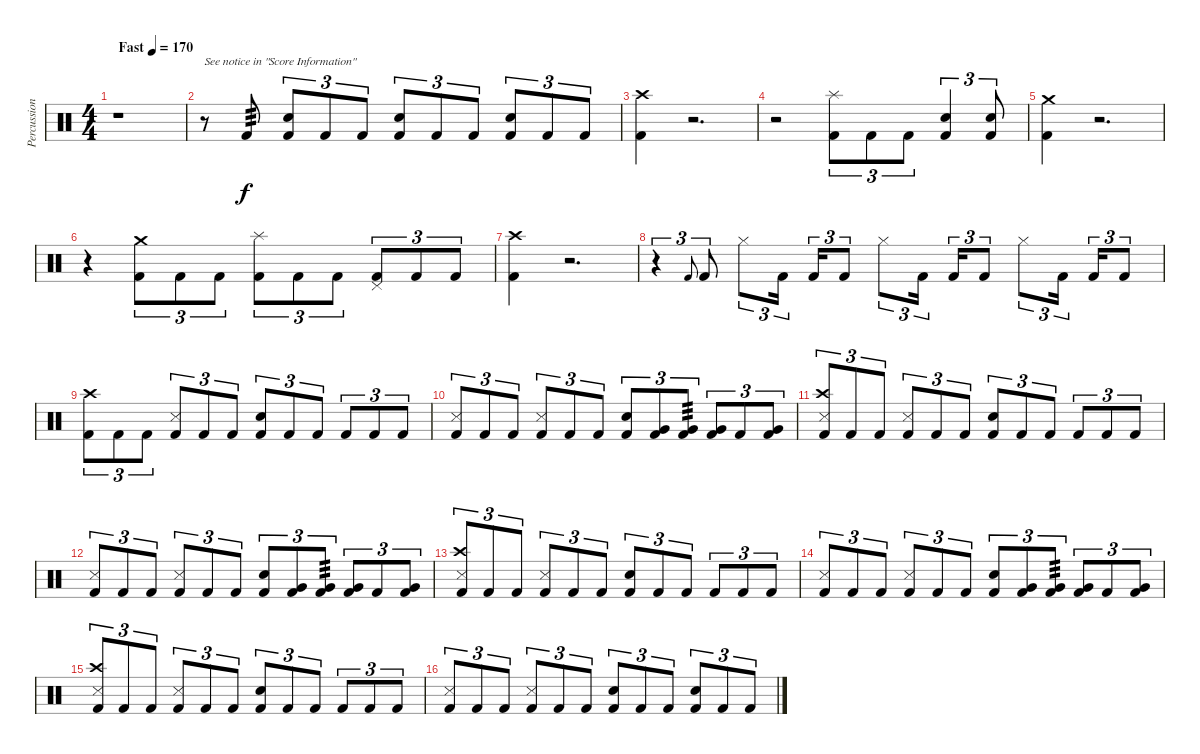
\track ("Percussioni" "Percussion") {instrument percussion}
\staff {score}
\articulation defaults
\ts (4 4)
\tempo (170 "Fast")
\clef neutral
\ks c
r.1{dy f} |
r.8{txt "See notice in \"Score Information\""} "Kick (hit) 2".8{tp 3} ("Snare (hit) 2" "Kick (hit) 2").8{tu (3 2)} "Kick (hit) 2".8{tu (3 2)} "Kick (hit) 2".8{tu (3 2)} ("Snare (hit) 2" "Kick (hit) 2").8{tu (3 2)} "Kick (hit) 2".8{tu (3 2)} "Kick (hit) 2".8{tu (3 2)} ("Snare (hit) 2" "Kick (hit) 2").8{tu (3 2)} "Kick (hit) 2".8{tu (3 2)} "Kick (hit) 2".8{tu (3 2)} |
("Crash high (hit)" "Kick (hit) 2").4 r.2{d} |
r.2 ("Splash (hit)" "Kick (hit) 2").8{tu (3 2)} "Kick (hit) 2".8{tu (3 2)} "Kick (hit) 2".8{tu (3 2)} ("Snare (hit) 2" "Kick (hit) 2").4{tu (3 2)} ("Snare (hit) 2" "Kick (hit) 2").8{tu (3 2)} |
("Crash medium (hit)" "Kick (hit) 2").4 r.2{d} |
r.4 ("Crash medium (hit)" "Kick (hit) 2").8{tu (3 2)} "Kick (hit) 2".8{tu (3 2)} "Kick (hit) 2".8{tu (3 2)} ("Splash (hit)" "Kick (hit) 2").8{tu (3 2)} "Kick (hit) 2".8{tu (3 2)} "Kick (hit) 2".8{tu (3 2)} ("Pedal Hi-Hat (hit)" "Kick (hit) 2").8{tu (3 2)} "Kick (hit) 2".8{tu (3 2)} "Kick (hit) 2".8{tu (3 2)} |
("Crash high (hit)" "Kick (hit) 2").4 r.2{d} |
r.4{tu (3 2)} "Kick (hit) 2".8{gr onbeat} "Kick (hit) 2".8{tu (3 2)} "Hi-Hat (closed)".8{tu (3 2)} "Kick (hit) 2".16{tu (3 2) beam splitsecondary} "Kick (hit) 2".16{tu (3 2)} "Kick (hit) 2".8{tu (3 2)} "Hi-Hat (closed)".8{tu (3 2)} "Kick (hit) 2".16{tu (3 2) beam splitsecondary} "Kick (hit) 2".16{tu (3 2)} "Kick (hit) 2".8{tu (3 2)} "Hi-Hat (closed)".8{tu (3 2)} "Kick (hit) 2".16{tu (3 2) beam splitsecondary} "Kick (hit) 2".16{tu (3 2)} "Kick (hit) 2".8{tu (3 2)} |
("Crash high (hit)" "Kick (hit) 2").8{tu (3 2)} "Kick (hit) 2".8{tu (3 2)} "Kick (hit) 2".8{tu (3 2)} ("Snare (side stick) 3" "Kick (hit) 2").8{tu (3 2)} "Kick (hit) 2".8{tu (3 2)} "Kick (hit) 2".8{tu (3 2)} ("Snare (hit) 2" "Kick (hit) 2").8{tu (3 2)} "Kick (hit) 2".8{tu (3 2)} "Kick (hit) 2".8{tu (3 2)} "Kick (hit) 2".8{tu (3 2)} "Kick (hit) 2".8{tu (3 2)} "Kick (hit) 2".8{tu (3 2)} |
("Snare (side stick) 3" "Kick (hit) 2").8{tu (3 2)} "Kick (hit) 2".8{tu (3 2)} "Kick (hit) 2".8{tu (3 2)} ("Snare (side stick) 3" "Kick (hit) 2").8{tu (3 2)} "Kick (hit) 2".8{tu (3 2)} "Kick (hit) 2".8{tu (3 2)} ("Snare (hit) 2" "Kick (hit) 2").8{tu (3 2)} ("Very Low Tom (hit)" "Kick (hit) 2").8{tu (3 2)} ("Very Low Tom (hit)" "Kick (hit) 2").8{tu (3 2) tp 3} ("Very Low Tom (hit)" "Kick (hit) 2").8{tu (3 2)} "Kick (hit) 2".8{tu (3 2)} ("Very Low Tom (hit)" "Kick (hit) 2").8{tu (3 2)} |
("Crash high (hit)" "Snare (side stick) 3" "Kick (hit) 2").8{tu (3 2)} "Kick (hit) 2".8{tu (3 2)} "Kick (hit) 2".8{tu (3 2)} ("Snare (side stick) 3" "Kick (hit) 2").8{tu (3 2)} "Kick (hit) 2".8{tu (3 2)} "Kick (hit) 2".8{tu (3 2)} ("Snare (hit) 2" "Kick (hit) 2").8{tu (3 2)} "Kick (hit) 2".8{tu (3 2)} "Kick (hit) 2".8{tu (3 2)} "Kick (hit) 2".8{tu (3 2)} "Kick (hit) 2".8{tu (3 2)} "Kick (hit) 2".8{tu (3 2)} |
("Snare (side stick) 3" "Kick (hit) 2").8{tu (3 2)} "Kick (hit) 2".8{tu (3 2)} "Kick (hit) 2".8{tu (3 2)} ("Snare (side stick) 3" "Kick (hit) 2").8{tu (3 2)} "Kick (hit) 2".8{tu (3 2)} "Kick (hit) 2".8{tu (3 2)} ("Snare (hit) 2" "Kick (hit) 2").8{tu (3 2)} ("Very Low Tom (hit)" "Kick (hit) 2").8{tu (3 2)} ("Very Low Tom (hit)" "Kick (hit) 2").8{tu (3 2) tp 3} ("Very Low Tom (hit)" "Kick (hit) 2").8{tu (3 2)} "Kick (hit) 2".8{tu (3 2)} ("Very Low Tom (hit)" "Kick (hit) 2").8{tu (3 2)} |
("Crash high (hit)" "Snare (side stick) 3" "Kick (hit) 2").8{tu (3 2)} "Kick (hit) 2".8{tu (3 2)} "Kick (hit) 2".8{tu (3 2)} ("Snare (side stick) 3" "Kick (hit) 2").8{tu (3 2)} "Kick (hit) 2".8{tu (3 2)} "Kick (hit) 2".8{tu (3 2)} ("Snare (hit) 2" "Kick (hit) 2").8{tu (3 2)} "Kick (hit) 2".8{tu (3 2)} "Kick (hit) 2".8{tu (3 2)} "Kick (hit) 2".8{tu (3 2)} "Kick (hit) 2".8{tu (3 2)} "Kick (hit) 2".8{tu (3 2)} |
("Snare (side stick) 3" "Kick (hit) 2").8{tu (3 2)} "Kick (hit) 2".8{tu (3 2)} "Kick (hit) 2".8{tu (3 2)} ("Snare (side stick) 3" "Kick (hit) 2").8{tu (3 2)} "Kick (hit) 2".8{tu (3 2)} "Kick (hit) 2".8{tu (3 2)} ("Snare (hit) 2" "Kick (hit) 2").8{tu (3 2)} ("Very Low Tom (hit)" "Kick (hit) 2").8{tu (3 2)} ("Very Low Tom (hit)" "Kick (hit) 2").8{tu (3 2) tp 3} ("Very Low Tom (hit)" "Kick (hit) 2").8{tu (3 2)} "Kick (hit) 2".8{tu (3 2)} ("Very Low Tom (hit)" "Kick (hit) 2").8{tu (3 2)} |
("Crash high (hit)" "Snare (side stick) 3" "Kick (hit) 2").8{tu (3 2)} "Kick (hit) 2".8{tu (3 2)} "Kick (hit) 2".8{tu (3 2)} ("Snare (side stick) 3" "Kick (hit) 2").8{tu (3 2)} "Kick (hit) 2".8{tu (3 2)} "Kick (hit) 2".8{tu (3 2)} ("Snare (hit) 2" "Kick (hit) 2").8{tu (3 2)} "Kick (hit) 2".8{tu (3 2)} "Kick (hit) 2".8{tu (3 2)} "Kick (hit) 2".8{tu (3 2)} "Kick (hit) 2".8{tu (3 2)} "Kick (hit) 2".8{tu (3 2)} |
("Snare (side stick) 3" "Kick (hit) 2").8{tu (3 2)} "Kick (hit) 2".8{tu (3 2)} "Kick (hit) 2".8{tu (3 2)} ("Snare (side stick) 3" "Kick (hit) 2").8{tu (3 2)} "Kick (hit) 2".8{tu (3 2)} "Kick (hit) 2".8{tu (3 2)} ("Snare (hit) 2" "Kick (hit) 2").8{tu (3 2)} "Kick (hit) 2".8{tu (3 2)} "Kick (hit) 2".8{tu (3 2)} ("Snare (hit) 2" "Kick (hit) 2").8{tu (3 2)} "Kick (hit) 2".8{tu (3 2)} "Kick (hit) 2".8{tu (3 2)}
